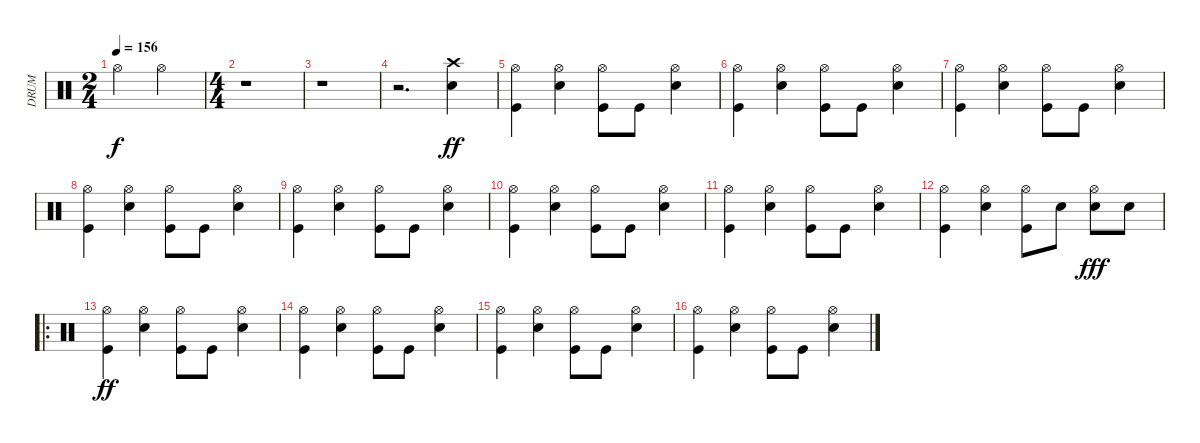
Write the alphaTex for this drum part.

\track ("DRUM" "DRUM") {instrument percussion}
\staff {score}
\articulation defaults
\ts (2 4)
\tempo 156
\clef neutral
\ks c "Hi-Hat (open)".4{dy f} "Hi-Hat (open)".4
|
\ts (4 4)
r.1 |
r.1 |
r.2{d} ("Crash high (hit)" "Snare (hit) 2").4{dy ff} |
("Hi-Hat (open)" "Kick (hit)").4 ("Hi-Hat (open)" "Snare (hit) 2").4 ("Hi-Hat (open)" "Kick (hit)").8 "Kick (hit)".8 ("Hi-Hat (open)" "Snare (hit) 2").4 |
("Hi-Hat (open)" "Kick (hit)").4 ("Hi-Hat (open)" "Snare (hit) 2").4 ("Hi-Hat (open)" "Kick (hit)").8 "Kick (hit)".8 ("Hi-Hat (open)" "Snare (hit) 2").4 |
("Hi-Hat (open)" "Kick (hit)").4 ("Hi-Hat (open)" "Snare (hit) 2").4 ("Hi-Hat (open)" "Kick (hit)").8 "Kick (hit)".8 ("Hi-Hat (open)" "Snare (hit) 2").4 |
("Hi-Hat (open)" "Kick (hit)").4 ("Hi-Hat (open)" "Snare (hit) 2").4 ("Hi-Hat (open)" "Kick (hit)").8 "Kick (hit)".8 ("Hi-Hat (open)" "Snare (hit) 2").4 |
("Hi-Hat (open)" "Kick (hit)").4 ("Hi-Hat (open)" "Snare (hit) 2").4 ("Hi-Hat (open)" "Kick (hit)").8 "Kick (hit)".8 ("Hi-Hat (open)" "Snare (hit) 2").4 |
("Hi-Hat (open)" "Kick (hit)").4 ("Hi-Hat (open)" "Snare (hit) 2").4 ("Hi-Hat (open)" "Kick (hit)").8 "Kick (hit)".8 ("Hi-Hat (open)" "Snare (hit) 2").4 |
("Hi-Hat (open)" "Kick (hit)").4 ("Hi-Hat (open)" "Snare (hit) 2").4 ("Hi-Hat (open)" "Kick (hit)").8 "Kick (hit)".8 ("Hi-Hat (open)" "Snare (hit) 2").4 |
("Hi-Hat (open)" "Kick (hit)").4 ("Hi-Hat (open)" "Snare (hit) 2").4 ("Hi-Hat (open)" "Kick (hit)").8 "Snare (hit) 2".8 ("Hi-Hat (open)" "Snare (hit) 2").8{dy fff} "Snare (hit) 2".8 |
\ro
("Hi-Hat (open)" "Kick (hit)").4{dy ff} ("Hi-Hat (open)" "Snare (hit) 2").4 ("Hi-Hat (open)" "Kick (hit)").8 "Kick (hit)".8 ("Hi-Hat (open)" "Snare (hit) 2").4 |
("Hi-Hat (open)" "Kick (hit)").4 ("Hi-Hat (open)" "Snare (hit) 2").4 ("Hi-Hat (open)" "Kick (hit)").8 "Kick (hit)".8 ("Hi-Hat (open)" "Snare (hit) 2").4 |
("Hi-Hat (open)" "Kick (hit)").4 ("Hi-Hat (open)" "Snare (hit) 2").4 ("Hi-Hat (open)" "Kick (hit)").8 "Kick (hit)".8 ("Hi-Hat (open)" "Snare (hit) 2").4 |
("Hi-Hat (open)" "Kick (hit)").4 ("Hi-Hat (open)" "Snare (hit) 2").4 ("Hi-Hat (open)" "Kick (hit)").8 "Kick (hit)".8 ("Hi-Hat (open)" "Snare (hit) 2").4
